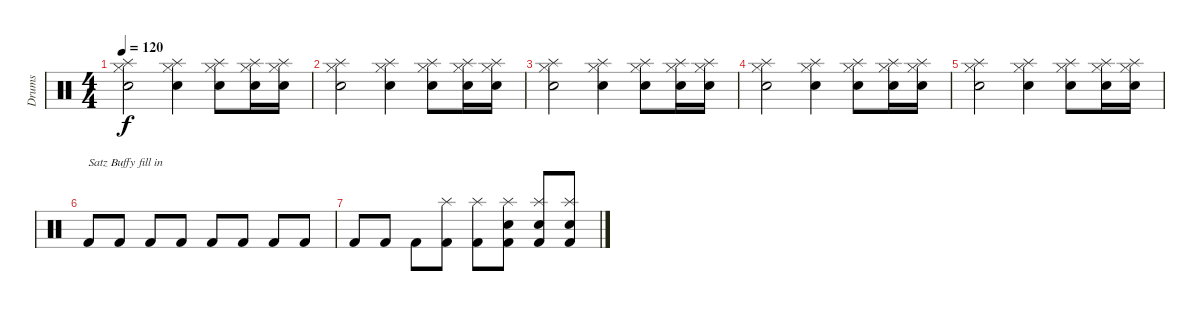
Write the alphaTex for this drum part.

\track ("Drums" "Drums") {instrument percussion}
\staff {score}
\articulation defaults
\ts (4 4)
\tempo 120
\clef neutral
\ks c
("Snare (hit) 2" "Splash (hit)" "Hi-Hat (closed)").2{dy f} ("Snare (hit) 2" "Splash (hit)" "Hi-Hat (closed)").4 ("Snare (hit) 2" "Splash (hit)" "Hi-Hat (closed)").8 ("Snare (hit) 2" "Splash (hit)" "Hi-Hat (closed)").16 ("Snare (hit) 2" "Splash (hit)" "Hi-Hat (closed)").16 |
("Snare (hit) 2" "Splash (hit)" "Hi-Hat (closed)").2 ("Snare (hit) 2" "Splash (hit)" "Hi-Hat (closed)").4 ("Snare (hit) 2" "Splash (hit)" "Hi-Hat (closed)").8 ("Snare (hit) 2" "Splash (hit)" "Hi-Hat (closed)").16 ("Snare (hit) 2" "Splash (hit)" "Hi-Hat (closed)").16 |
("Snare (hit) 2" "Splash (hit)" "Hi-Hat (closed)").2 ("Snare (hit) 2" "Splash (hit)" "Hi-Hat (closed)").4 ("Snare (hit) 2" "Splash (hit)" "Hi-Hat (closed)").8 ("Snare (hit) 2" "Splash (hit)" "Hi-Hat (closed)").16 ("Snare (hit) 2" "Splash (hit)" "Hi-Hat (closed)").16 |
("Snare (hit) 2" "Splash (hit)" "Hi-Hat (closed)").2 ("Snare (hit) 2" "Splash (hit)" "Hi-Hat (closed)").4 ("Snare (hit) 2" "Splash (hit)" "Hi-Hat (closed)").8 ("Snare (hit) 2" "Splash (hit)" "Hi-Hat (closed)").16 ("Snare (hit) 2" "Splash (hit)" "Hi-Hat (closed)").16 |
("Snare (hit) 2" "Splash (hit)" "Hi-Hat (closed)").2 ("Snare (hit) 2" "Splash (hit)" "Hi-Hat (closed)").4 ("Snare (hit) 2" "Splash (hit)" "Hi-Hat (closed)").8 ("Snare (hit) 2" "Splash (hit)" "Hi-Hat (closed)").16 ("Snare (hit) 2" "Splash (hit)" "Hi-Hat (closed)").16 |
"Kick (hit) 2".8{txt "Satz Buffy fill in" volume 12} "Kick (hit) 2".8 "Kick (hit) 2".8 "Kick (hit) 2".8 "Kick (hit) 2".8 "Kick (hit) 2".8 "Kick (hit) 2".8 "Kick (hit) 2".8 |
"Kick (hit) 2".8 "Kick (hit) 2".8 "Kick (hit) 2".8 ("Kick (hit) 2" "Splash (hit)").8 ("Kick (hit) 2" "Splash (hit)").8 ("Kick (hit) 2" "Splash (hit)" "Snare (hit) 2").8 ("Kick (hit) 2" "Splash (hit)" "Snare (hit) 2").8 ("Kick (hit) 2" "Splash (hit)" "Snare (hit) 2").8
